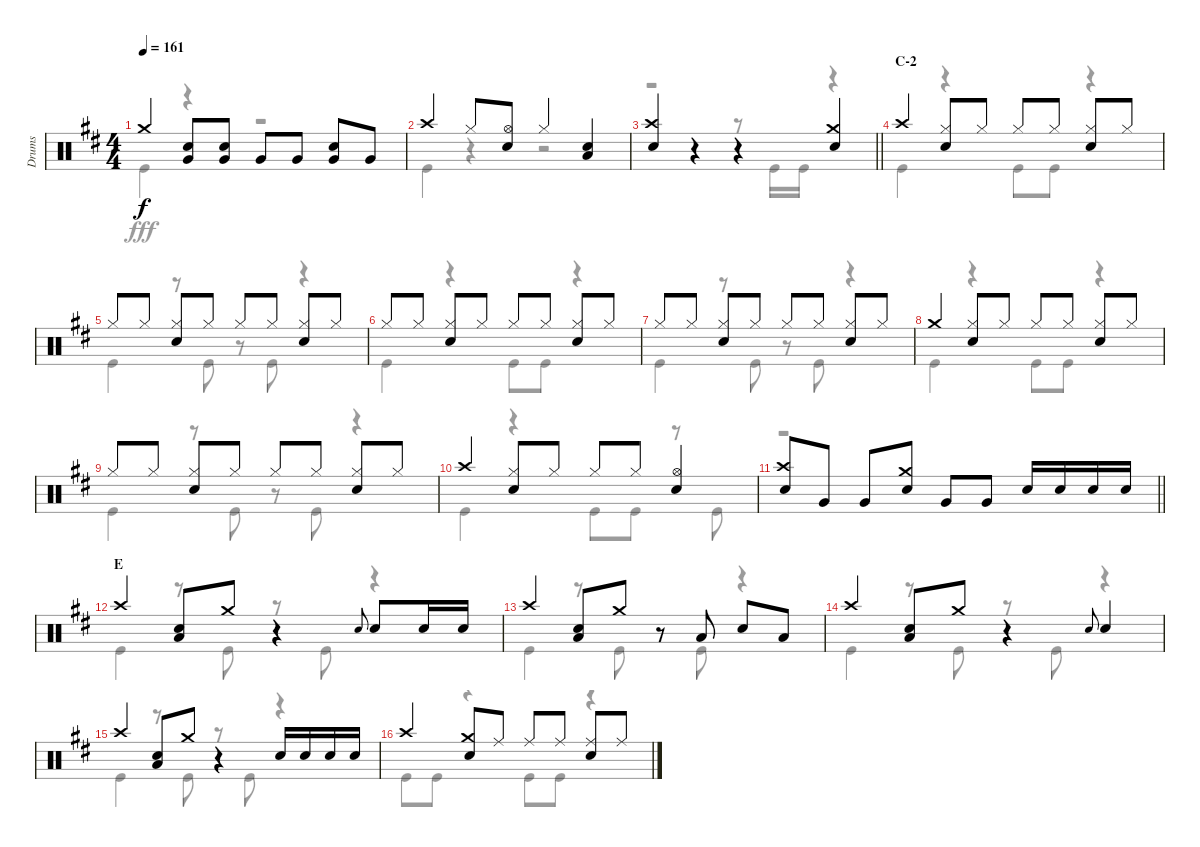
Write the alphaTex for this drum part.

\track ("Drums" "Drums") {instrument percussion}
\staff {score}
\articulation defaults
\voice
\ts (4 4)
\tempo 161
\clef neutral
\ks d "Crash medium (hit)".4{dy f}
("Snare (hit) 2" "Very Low Tom (hit)").8 ("Snare (hit) 2" "Very Low Tom (hit)").8 "Very Low Tom (hit)".8 "Very Low Tom (hit)".8 ("Snare (hit) 2" "Very Low Tom (hit)").8 "Very Low Tom (hit)".8 |
"Crash high (hit)".4 "Hi-Hat (closed)".8 ("Hi-Hat (open)" "Snare (hit) 2").8 "Hi-Hat (closed)".4 ("Snare (hit) 2" "Low Tom (hit)").4 |
\barLineRight lightlight
("Crash high (hit)" "Snare (hit) 2").4 r.4 r.4 ("Crash medium (hit)" "Snare (hit) 2").4 |
\section ("" "C-2")
"Crash high (hit)".4 ("Hi-Hat (closed)" "Snare (hit) 2").8 "Hi-Hat (closed)".8 "Hi-Hat (closed)".8 "Hi-Hat (closed)".8 ("Hi-Hat (closed)" "Snare (hit) 2").8 "Hi-Hat (closed)".8 |
"Hi-Hat (closed)".8 "Hi-Hat (closed)".8 ("Hi-Hat (closed)" "Snare (hit) 2").8 "Hi-Hat (closed)".8 "Hi-Hat (closed)".8 "Hi-Hat (closed)".8 ("Hi-Hat (closed)" "Snare (hit) 2").8 "Hi-Hat (closed)".8 |
"Hi-Hat (closed)".8 "Hi-Hat (closed)".8 ("Hi-Hat (closed)" "Snare (hit) 2").8 "Hi-Hat (closed)".8 "Hi-Hat (closed)".8 "Hi-Hat (closed)".8 ("Hi-Hat (closed)" "Snare (hit) 2").8 "Hi-Hat (closed)".8 |
"Hi-Hat (closed)".8 "Hi-Hat (closed)".8 ("Hi-Hat (closed)" "Snare (hit) 2").8 "Hi-Hat (closed)".8 "Hi-Hat (closed)".8 "Hi-Hat (closed)".8 ("Hi-Hat (closed)" "Snare (hit) 2").8 "Hi-Hat (closed)".8 |
"Crash medium (hit)".4 ("Hi-Hat (closed)" "Snare (hit) 2").8 "Hi-Hat (closed)".8 "Hi-Hat (closed)".8 "Hi-Hat (closed)".8 ("Hi-Hat (closed)" "Snare (hit) 2").8 "Hi-Hat (closed)".8 |
"Hi-Hat (closed)".8 "Hi-Hat (closed)".8 ("Hi-Hat (closed)" "Snare (hit) 2").8 "Hi-Hat (closed)".8 "Hi-Hat (closed)".8 "Hi-Hat (closed)".8 ("Hi-Hat (closed)" "Snare (hit) 2").8 "Hi-Hat (closed)".8 |
"Crash high (hit)".4 ("Hi-Hat (closed)" "Snare (hit) 2").8 "Hi-Hat (closed)".8 "Hi-Hat (closed)".8 "Hi-Hat (closed)".8 ("Hi-Hat (open)" "Snare (hit) 2").4 |
\barLineRight lightlight
("Crash high (hit)" "Snare (hit) 2").8 "Very Low Tom (hit)".8 "Very Low Tom (hit)".8 ("Crash medium (hit)" "Snare (hit) 2").8 "Very Low Tom (hit)".8 "Very Low Tom (hit)".8 "Snare (hit) 2".16 "Snare (hit) 2".16 "Snare (hit) 2".16 "Snare (hit) 2".16 |
\section ("" "E")
"Crash high (hit)".4 ("Snare (hit) 2" "Low Tom (hit)").8 "Crash medium (hit)".8 r.4 "Snare (hit) 2".8{gr onbeat} "Snare (hit) 2".8 "Snare (hit) 2".16 "Snare (hit) 2".16 |
"Crash high (hit)".4 ("Snare (hit) 2" "Low Tom (hit)").8 "Crash medium (hit)".8 r.8 "Low Tom (hit)".8 "Snare (hit) 2".8 "Low Tom (hit)".8 |
"Crash high (hit)".4 ("Snare (hit) 2" "Low Tom (hit)").8 "Crash medium (hit)".8 r.4 "Snare (hit) 2".8{gr onbeat} "Snare (hit) 2".4 |
"Crash high (hit)".4 ("Snare (hit) 2" "Low Tom (hit)").8 "Crash medium (hit)".8 r.4 "Snare (hit) 2".16 "Snare (hit) 2".16 "Snare (hit) 2".16 "Snare (hit) 2".16 |
"Crash high (hit)".4 ("Crash medium (hit)" "Snare (hit) 2").8 "Ride (middle)".8 "Ride (middle)".8 "Ride (middle)".8 ("Ride (middle)" "Snare (hit) 2").8 "Ride (middle)".8
\voice
\clef neutral
\ottava regular
\simile none
\ks d "Kick (hit)".4{dy fff}
r.4 r.2 |
"Kick (hit)".4 r.4 r.2 |
\barLineRight lightlight
r.2 r.8 "Kick (hit)".16 "Kick (hit)".16 r.4 |
"Kick (hit)".4 r.4 "Kick (hit)".8 "Kick (hit)".8 r.4 |
"Kick (hit)".4 r.8 "Kick (hit)".8 r.8 "Kick (hit)".8 r.4 |
"Kick (hit)".4 r.4 "Kick (hit)".8 "Kick (hit)".8 r.4 |
"Kick (hit)".4 r.8 "Kick (hit)".8 r.8 "Kick (hit)".8 r.4 |
"Kick (hit)".4 r.4 "Kick (hit)".8 "Kick (hit)".8 r.4 |
"Kick (hit)".4 r.8 "Kick (hit)".8 r.8 "Kick (hit)".8 r.4 |
"Kick (hit)".4 r.4 "Kick (hit)".8 "Kick (hit)".8 r.8 "Kick (hit)".8 |
\barLineRight lightlight
r.1 |
"Kick (hit)".4 r.8 "Kick (hit)".8 r.8 "Kick (hit)".8 r.4 |
"Kick (hit)".4 r.8 "Kick (hit)".8 r.8 "Kick (hit)".8 r.4 |
"Kick (hit)".4 r.8 "Kick (hit)".8 r.8 "Kick (hit)".8 r.4 |
"Kick (hit)".4 r.8 "Kick (hit)".8 r.8 "Kick (hit)".8 r.4 |
"Kick (hit)".8 "Kick (hit)".8 r.4 "Kick (hit)".8 "Kick (hit)".8 r.4
